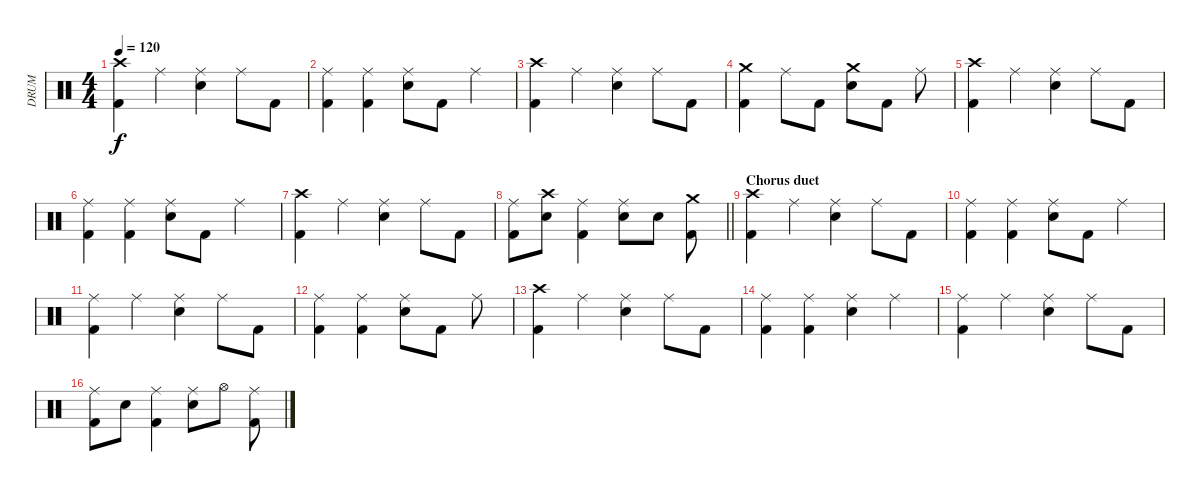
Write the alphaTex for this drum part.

\track ("DRUM" "DRUM") {instrument percussion}
\staff {score}
\articulation defaults
\ts (4 4)
\tempo 120
\clef neutral
\ks c
("Kick (hit) 2" "Crash high (hit)").4{dy f} "Ride (middle)".4 ("Ride (middle)" "Electric Snare (hit)").4 "Ride (middle)".8 "Kick (hit) 2".8 |
("Ride (middle)" "Kick (hit) 2").4 ("Ride (middle)" "Kick (hit) 2").4 ("Ride (middle)" "Electric Snare (hit)").8 "Kick (hit) 2".8 "Ride (middle)".4 |
("Kick (hit) 2" "Crash high (hit)").4 "Ride (middle)".4 ("Ride (middle)" "Electric Snare (hit)").4 "Ride (middle)".8 "Kick (hit) 2".8 |
("Crash medium (hit)" "Kick (hit) 2").4 "Ride (middle)".8 "Kick (hit) 2".8 ("Crash medium (hit)" "Electric Snare (hit)").8 "Kick (hit) 2".8 "Ride (middle)".8 |
("Kick (hit) 2" "Crash high (hit)").4 "Ride (middle)".4 ("Ride (middle)" "Electric Snare (hit)").4 "Ride (middle)".8 "Kick (hit) 2".8 |
("Ride (middle)" "Kick (hit) 2").4 ("Ride (middle)" "Kick (hit) 2").4 ("Ride (middle)" "Electric Snare (hit)").8 "Kick (hit) 2".8 "Ride (middle)".4 |
("Kick (hit) 2" "Crash high (hit)").4 "Ride (middle)".4 ("Ride (middle)" "Electric Snare (hit)").4 "Ride (middle)".8 "Kick (hit) 2".8 |
\barLineRight lightlight
("Kick (hit) 2" "Ride (middle)").8 ("Electric Snare (hit)" "Crash high (hit)").8 ("Kick (hit) 2" "Ride (middle)").4 ("Electric Snare (hit)" "Ride (middle)").8 "Electric Snare (hit)".8 ("Kick (hit) 2" "Crash medium (hit)").8 |
\section ("" "Chorus duet")
("Crash high (hit)" "Kick (hit) 2").4 "Ride (middle)".4 ("Ride (middle)" "Electric Snare (hit)").4 "Ride (middle)".8 "Kick (hit) 2".8 |
("Ride (middle)" "Kick (hit) 2").4 ("Ride (middle)" "Kick (hit) 2").4 ("Ride (middle)" "Electric Snare (hit)").8 "Kick (hit) 2".8 "Ride (middle)".4 |
("Kick (hit) 2" "Ride (middle)").4 "Ride (middle)".4 ("Ride (middle)" "Electric Snare (hit)").4 "Ride (middle)".8 "Kick (hit) 2".8 |
("Ride (middle)" "Kick (hit) 2").4 ("Ride (middle)" "Kick (hit) 2").4 ("Ride (middle)" "Electric Snare (hit)").8 "Kick (hit) 2".8 "Ride (middle)".8 |
("Crash high (hit)" "Kick (hit) 2").4 "Ride (middle)".4 ("Ride (middle)" "Electric Snare (hit)").4 "Ride (middle)".8 "Kick (hit) 2".8 |
("Ride (middle)" "Kick (hit) 2").4 ("Ride (middle)" "Kick (hit) 2").4 ("Ride (middle)" "Electric Snare (hit)").4 "Ride (middle)".4 |
("Kick (hit) 2" "Ride (middle)").4 "Ride (middle)".4 ("Ride (middle)" "Electric Snare (hit)").4 "Ride (middle)".8 "Kick (hit) 2".8 |
("Kick (hit) 2" "Ride (middle)").8 "Electric Snare (hit)".8 ("Kick (hit) 2" "Ride (middle)").4 ("Electric Snare (hit)" "Ride (middle)").8 "Hi-Hat (open)".8 ("Kick (hit) 2" "Ride (middle)").8
